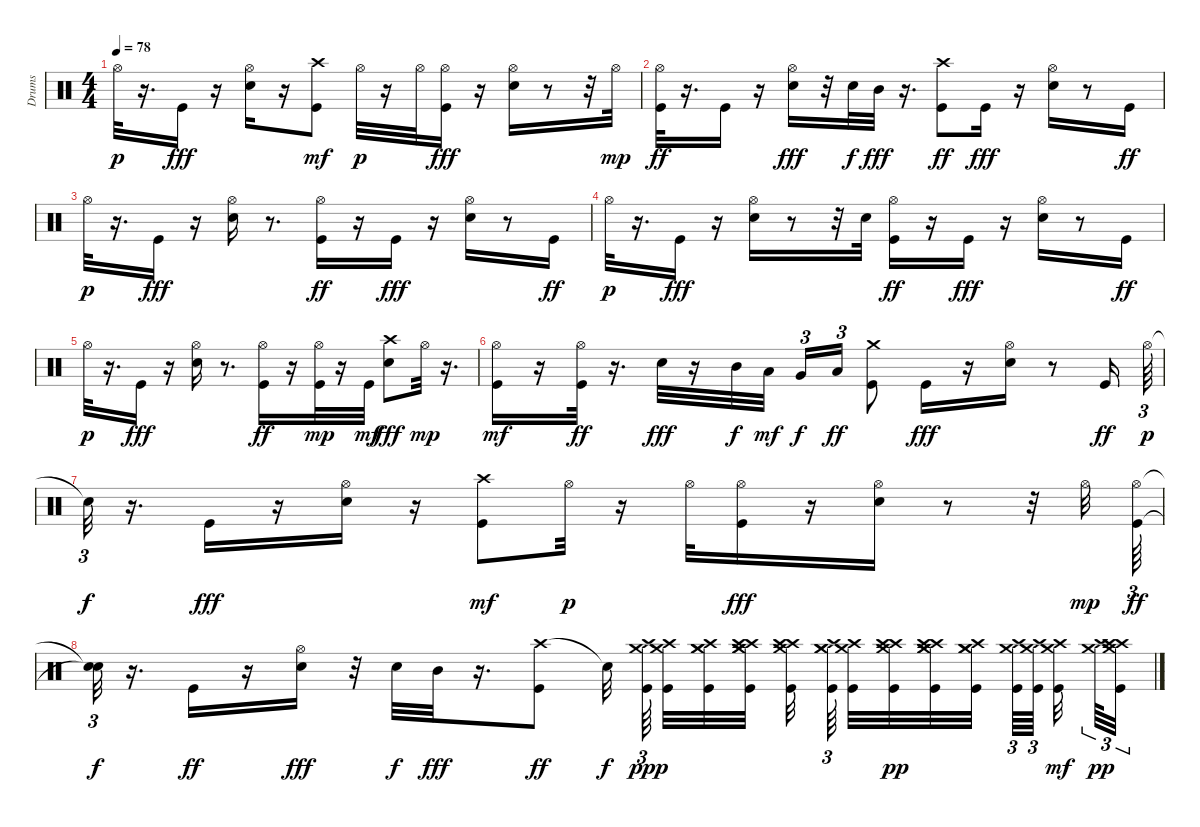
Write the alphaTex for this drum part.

\track ("Drums" "Drums") {instrument percussion}
\staff {score}
\articulation defaults
\ts (4 4)
\tempo 78
\clef neutral
\ks c "Hi-Hat (open)".32{dy p}
r.16{d} "Kick (hit)".16{dy fff} r.16 ("Hi-Hat (open)" "Electric Snare (hit)").16 r.16 ("Kick (hit)" "Crash high (hit)").8{dy mf} "Hi-Hat (open)".32{dy p} r.16 "Hi-Hat (open)".32 ("Hi-Hat (open)" "Kick (hit)").16{dy fff} r.16 ("Hi-Hat (open)" "Electric Snare (hit)").16 r.8 r.32 "Hi-Hat (open)".32{dy mp} |
("Hi-Hat (open)" "Kick (hit)").32{dy ff} r.16{d} "Kick (hit)".16 r.16 ("Hi-Hat (open)" "Electric Snare (hit)").16{dy fff} r.32 "Electric Snare (hit)".32{dy f} "Mid Tom (hit)".32{dy fff} r.16{d} ("Crash high (hit)" "Kick (hit)").8{dy ff} "Kick (hit)".16{dy fff} r.16 ("Hi-Hat (open)" "Electric Snare (hit)").16 r.8 "Kick (hit)".16{dy ff} |
"Hi-Hat (open)".32{dy p} r.16{d} "Kick (hit)".16{dy fff} r.16 ("Hi-Hat (open)" "Electric Snare (hit)").16 r.8{d} ("Hi-Hat (open)" "Kick (hit)").16{dy ff} r.16 "Kick (hit)".16{dy fff} r.16 ("Hi-Hat (open)" "Electric Snare (hit)").16 r.8 "Kick (hit)".16{dy ff} |
"Hi-Hat (open)".32{dy p} r.16{d} "Kick (hit)".16{dy fff} r.16 ("Hi-Hat (open)" "Electric Snare (hit)").16 r.8 r.32 "Electric Snare (hit)".32 ("Hi-Hat (open)" "Kick (hit)").16{dy ff} r.16 "Kick (hit)".16{dy fff} r.16 ("Hi-Hat (open)" "Electric Snare (hit)").16 r.8 "Kick (hit)".16{dy ff} |
"Hi-Hat (open)".32{dy p} r.16{d} "Kick (hit)".16{dy fff} r.16 ("Hi-Hat (open)" "Electric Snare (hit)").16 r.8{d} ("Hi-Hat (open)" "Kick (hit)").16{dy ff} r.16 ("Hi-Hat (open)" "Kick (hit)").32{dy mp} r.16 "Kick (hit)".32{dy mf} ("Crash high (hit)" "Electric Snare (hit)").8{dy fff} "Hi-Hat (open)".32{dy mp} r.16{d} |
("Kick (hit)" "Hi-Hat (open)").16{dy mf} r.16 ("Hi-Hat (open)" "Kick (hit)").32{dy ff} r.16{d} "Electric Snare (hit)".32{dy fff} r.16 "Mid Tom (hit)".32{dy f} "Low Tom (hit)".32{dy mf} "Very Low Tom (hit)".16{tu (3 2) dy f} "Low Floor Tom (hit)".16{tu (3 2) dy ff} ("Crash medium (hit)" "Kick (hit)").8 "Kick (hit)".16{dy fff} r.16 ("Hi-Hat (open)" "Electric Snare (hit)").16 r.8 "Kick (hit)".16{dy ff} "Hi-Hat (open)".64{tu (3 2) dy p} |
"Snare (hit)"{t}.32{tu (3 2) dy f} r.16{d} "Kick (hit)".16{dy fff} r.16 ("Hi-Hat (open)" "Electric Snare (hit)").16 r.16 ("Kick (hit)" "Crash high (hit)").8{dy mf} "Hi-Hat (open)".32{dy p} r.16 "Hi-Hat (open)".32 ("Hi-Hat (open)" "Kick (hit)").16{dy fff} r.16 ("Hi-Hat (open)" "Electric Snare (hit)").16 r.8 r.32 "Hi-Hat (open)".32{dy mp} ("Hi-Hat (open)" "Kick (hit)").64{tu (3 2) dy ff} |
("Snare (hit)"{t} "Snare (hit)"{t}).32{tu (3 2) dy f} r.16{d} "Kick (hit)".16{dy ff} r.16 ("Hi-Hat (open)" "Electric Snare (hit)").16{dy fff} r.32 "Electric Snare (hit)".32{dy f} "Mid Tom (hit)".32{dy fff} r.16{d} ("Crash high (hit)" "Kick (hit)").8{dy ff} "Snare (hit)"{t}.32{dy f} ("Crash medium (hit)" "Kick (hit)" "Crash high (hit)").64{tu (3 2) dy ppp} ("Crash medium (hit)" "Kick (hit)" "Crash high (hit)").32 ("Crash medium (hit)" "Crash high (hit)" "Kick (hit)" "Crash medium (hit)").32 ("Crash high (hit)" "Crash medium (hit)" "Kick (hit)" "Crash high (hit)" "Crash medium (hit)").32 ("Crash high (hit)" "Kick (hit)" "Crash medium (hit)" "Crash high (hit)").32 ("Crash medium (hit)" "Kick (hit)" "Crash high (hit)" "Crash medium (hit)").64{tu (3 2)} ("Crash high (hit)" "Kick (hit)" "Crash medium (hit)").32 ("Crash high (hit)" "Crash medium (hit)" "Kick (hit)" "Crash high (hit)").32{dy pp} ("Crash medium (hit)" "Crash high (hit)" "Kick (hit)" "Crash medium (hit)" "Crash high (hit)").32 ("Crash medium (hit)" "Kick (hit)" "Crash high (hit)" "Crash medium (hit)").32 ("Kick (hit)" "Crash high (hit)" "Crash medium (hit)").64{tu (3 2)} ("Crash high (hit)" "Kick (hit)" "Crash medium (hit)").64{tu (3 2)} ("Crash high (hit)" "Crash medium (hit)" "Kick (hit)").32{dy mf} ("Crash high (hit)" "Crash medium (hit)").64{tu (3 2) dy pp} ("Crash high (hit)" "Kick (hit)" "Crash medium (hit)" "Crash high (hit)").32{tu (3 2)}
